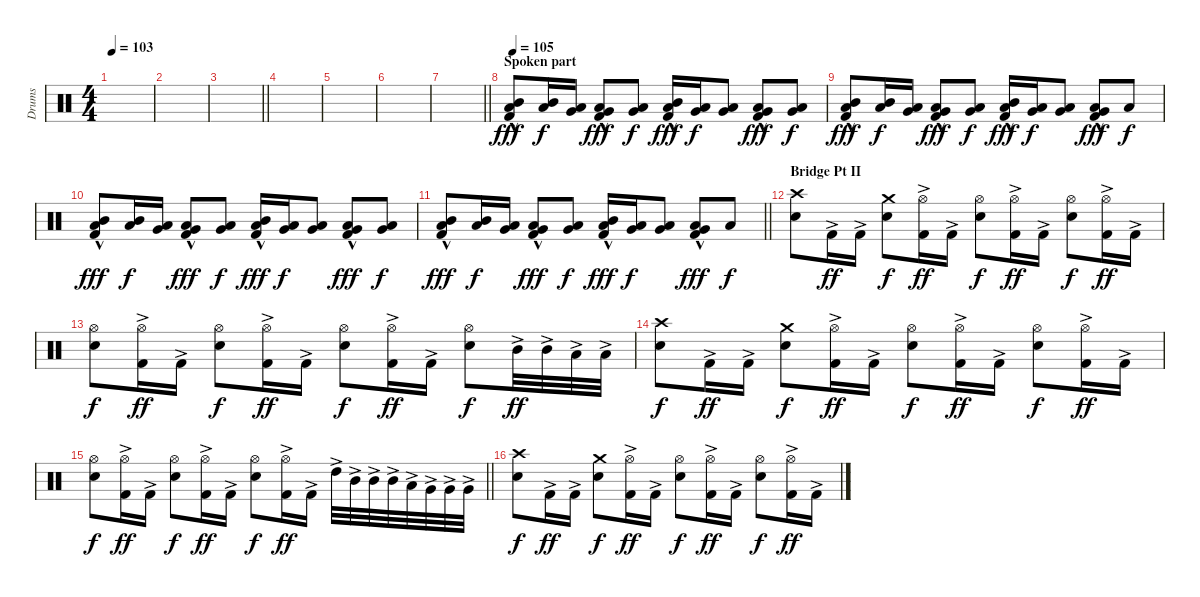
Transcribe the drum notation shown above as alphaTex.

\track ("Drums" "Drums") {instrument percussion}
\staff {score}
\articulation defaults
\ts (4 4)
\tempo 103
\clef neutral
\ks c
|
|
\barLineRight lightlight
|
\section ("" "")
|
|
|
\barLineRight lightlight
|
\section ("" "Spoken part")
\tempo 105
("Kick (hit) 2"{hac} "Low Tom (hit)" "Mid Tom (hit)").8{dy fff volume 12} ("Low Tom (hit)" "Mid Tom (hit)").16{dy f} ("Very Low Tom (hit)" "Low Tom (hit)").16 ("Kick (hit) 2"{hac} "Low Floor Tom (hit)" "Very Low Tom (hit)").8{dy fff} ("Low Floor Tom (hit)" "Very Low Tom (hit)").8{dy f} ("Kick (hit) 2"{hac} "Low Tom (hit)" "Mid Tom (hit)").16{dy fff} ("Very Low Tom (hit)" "Low Tom (hit)").16{dy f} ("Low Floor Tom (hit)" "Very Low Tom (hit)").8 ("Kick (hit) 2"{hac} "Low Floor Tom (hit)" "Very Low Tom (hit)").8{dy fff} ("Low Floor Tom (hit)" "Very Low Tom (hit)").8{dy f} |
("Kick (hit) 2"{hac} "Low Tom (hit)" "Mid Tom (hit)").8{dy fff} ("Low Tom (hit)" "Mid Tom (hit)").16{dy f} ("Very Low Tom (hit)" "Low Tom (hit)").16 ("Kick (hit) 2"{hac} "Low Floor Tom (hit)" "Very Low Tom (hit)").8{dy fff} ("Low Floor Tom (hit)" "Very Low Tom (hit)").8{dy f} ("Kick (hit) 2"{hac} "Low Tom (hit)" "Mid Tom (hit)").16{dy fff} ("Very Low Tom (hit)" "Low Tom (hit)").16{dy f} ("Low Floor Tom (hit)" "Very Low Tom (hit)").8 ("Kick (hit) 2"{hac} "Low Floor Tom (hit)" "Very Low Tom (hit)").8{dy fff} "Low Floor Tom (hit)".8{dy f} |
("Kick (hit) 2"{hac} "Low Tom (hit)" "Mid Tom (hit)").8{dy fff} ("Low Tom (hit)" "Mid Tom (hit)").16{dy f} ("Very Low Tom (hit)" "Low Tom (hit)").16 ("Kick (hit) 2"{hac} "Low Floor Tom (hit)" "Very Low Tom (hit)").8{dy fff} ("Low Floor Tom (hit)" "Very Low Tom (hit)").8{dy f} ("Kick (hit) 2"{hac} "Low Tom (hit)" "Mid Tom (hit)").16{dy fff} ("Very Low Tom (hit)" "Low Tom (hit)").16{dy f} ("Low Floor Tom (hit)" "Very Low Tom (hit)").8 ("Kick (hit) 2"{hac} "Low Floor Tom (hit)" "Very Low Tom (hit)").8{dy fff} ("Low Floor Tom (hit)" "Very Low Tom (hit)").8{dy f} |
\barLineRight lightlight
("Kick (hit) 2"{hac} "Low Tom (hit)" "Mid Tom (hit)").8{dy fff} ("Low Tom (hit)" "Mid Tom (hit)").16{dy f} ("Very Low Tom (hit)" "Low Tom (hit)").16 ("Kick (hit) 2"{hac} "Low Floor Tom (hit)" "Very Low Tom (hit)").8{dy fff} ("Low Floor Tom (hit)" "Very Low Tom (hit)").8{dy f} ("Kick (hit) 2"{hac} "Low Tom (hit)" "Mid Tom (hit)").16{dy fff} ("Very Low Tom (hit)" "Low Tom (hit)").16{dy f} ("Low Floor Tom (hit)" "Very Low Tom (hit)").8 ("Kick (hit) 2"{hac} "Low Floor Tom (hit)" "Very Low Tom (hit)").8{dy fff} "Low Floor Tom (hit)".8{dy f} |
\section ("" "Bridge Pt II")
("Snare (hit) 2" "Crash high (hit)").8{volume 15} "Kick (hit) 2"{ac}.16{dy ff} "Kick (hit) 2"{ac}.16 ("Snare (hit) 2" "Crash medium (hit)").8{dy f} ("Kick (hit) 2"{ac} "Hi-Hat (open)").16{dy ff} "Kick (hit) 2"{ac}.16 ("Snare (hit) 2" "Hi-Hat (open)").8{dy f} ("Kick (hit) 2"{ac} "Hi-Hat (open)").16{dy ff} "Kick (hit) 2"{ac}.16 ("Snare (hit) 2" "Hi-Hat (open)").8{dy f} ("Kick (hit) 2"{ac} "Hi-Hat (open)").16{dy ff} "Kick (hit) 2"{ac}.16 |
("Snare (hit) 2" "Hi-Hat (open)").8{dy f} ("Kick (hit) 2"{ac} "Hi-Hat (open)").16{dy ff} "Kick (hit) 2"{ac}.16 ("Snare (hit) 2" "Hi-Hat (open)").8{dy f} ("Kick (hit) 2"{ac} "Hi-Hat (open)").16{dy ff} "Kick (hit) 2"{ac}.16 ("Snare (hit) 2" "Hi-Hat (open)").8{dy f} ("Kick (hit) 2"{ac} "Hi-Hat (open)").16{dy ff} "Kick (hit) 2"{ac}.16 ("Snare (hit) 2" "Hi-Hat (open)").8{dy f} "Mid Tom (hit)"{ac}.32{dy ff} "Mid Tom (hit)"{ac}.32 "Low Tom (hit)"{ac}.32 "Low Tom (hit)"{ac}.32 |
("Snare (hit) 2" "Crash high (hit)").8{dy f} "Kick (hit) 2"{ac}.16{dy ff} "Kick (hit) 2"{ac}.16 ("Snare (hit) 2" "Crash medium (hit)").8{dy f} ("Kick (hit) 2"{ac} "Hi-Hat (open)").16{dy ff} "Kick (hit) 2"{ac}.16 ("Snare (hit) 2" "Hi-Hat (open)").8{dy f} ("Kick (hit) 2"{ac} "Hi-Hat (open)").16{dy ff} "Kick (hit) 2"{ac}.16 ("Snare (hit) 2" "Hi-Hat (open)").8{dy f} ("Kick (hit) 2"{ac} "Hi-Hat (open)").16{dy ff} "Kick (hit) 2"{ac}.16 |
\barLineRight lightlight
("Snare (hit) 2" "Hi-Hat (open)").8{dy f} ("Kick (hit) 2"{ac} "Hi-Hat (open)").16{dy ff} "Kick (hit) 2"{ac}.16 ("Snare (hit) 2" "Hi-Hat (open)").8{dy f} ("Kick (hit) 2"{ac} "Hi-Hat (open)").16{dy ff} "Kick (hit) 2"{ac}.16 ("Snare (hit) 2" "Hi-Hat (open)").8{dy f} ("Kick (hit) 2"{ac} "Hi-Hat (open)").16{dy ff} "Kick (hit) 2"{ac}.16 "High Tom (hit)"{ac}.32 "Mid Tom (hit)"{ac}.32 "Mid Tom (hit)"{ac}.32 "Mid Tom (hit)"{ac}.32 "Low Tom (hit)"{ac}.32 "Very Low Tom (hit)"{ac}.32 "Very Low Tom (hit)"{ac}.32 "Very Low Tom (hit)"{ac}.32 |
\section ("" "")
("Snare (hit) 2" "Crash high (hit)").8{dy f} "Kick (hit) 2"{ac}.16{dy ff} "Kick (hit) 2"{ac}.16 ("Snare (hit) 2" "Crash medium (hit)").8{dy f} ("Kick (hit) 2"{ac} "Hi-Hat (open)").16{dy ff} "Kick (hit) 2"{ac}.16 ("Snare (hit) 2" "Hi-Hat (open)").8{dy f} ("Kick (hit) 2"{ac} "Hi-Hat (open)").16{dy ff} "Kick (hit) 2"{ac}.16 ("Snare (hit) 2" "Hi-Hat (open)").8{dy f} ("Kick (hit) 2"{ac} "Hi-Hat (open)").16{dy ff} "Kick (hit) 2"{ac}.16
